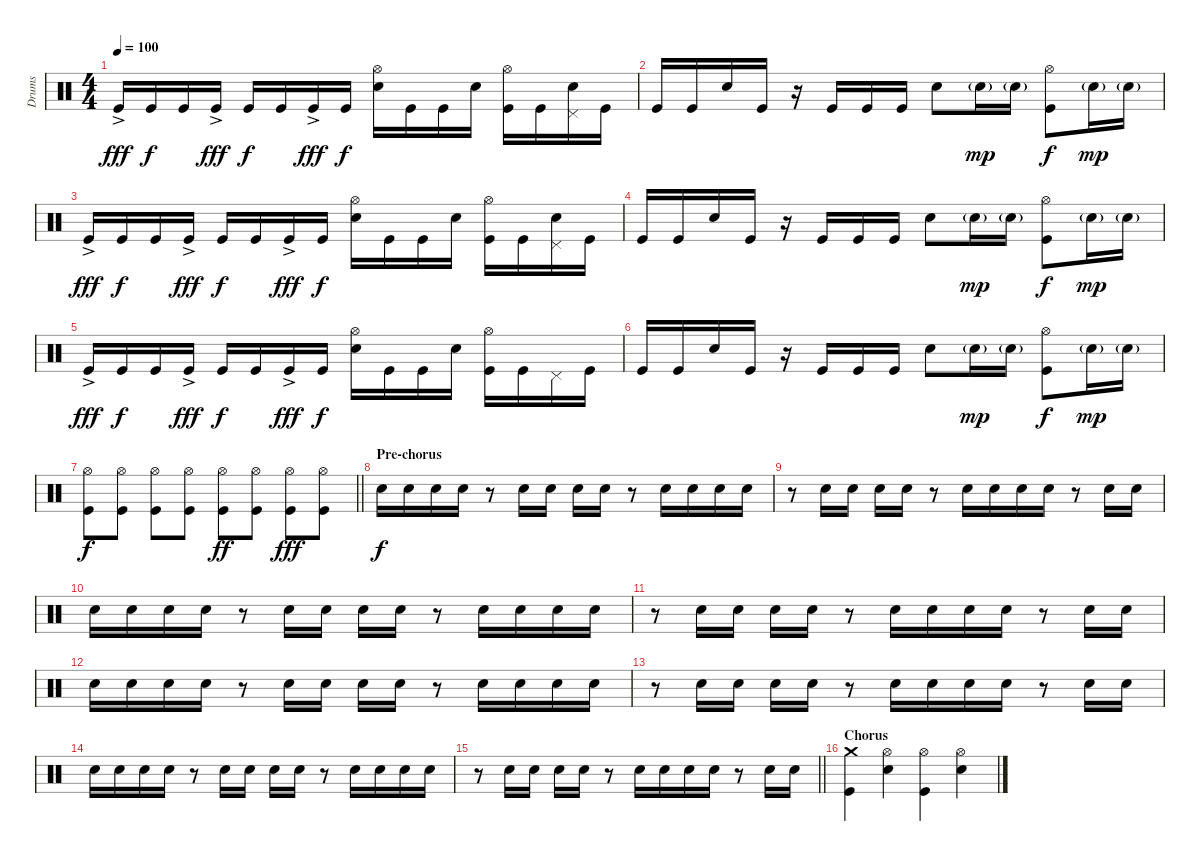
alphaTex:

\track ("Drums" "Drums") {instrument percussion}
\staff {score}
\articulation defaults
\ts (4 4)
\tempo 100
\clef neutral
\ks c "Kick (hit)"{ac}.16{dy fff} "Kick (hit)".16{dy f} "Kick (hit)".16 "Kick (hit)"{ac}.16{dy fff} "Kick (hit)".16{dy f} "Kick (hit)".16 "Kick (hit)"{ac}.16{dy fff} "Kick (hit)".16{dy f}
("Hi-Hat (open)" "Electric Snare (hit)").16 "Kick (hit)".16 "Kick (hit)".16 "Electric Snare (hit)".16 ("Hi-Hat (open)" "Kick (hit)").16 "Kick (hit)".16 ("Pedal Hi-Hat (hit)" "Electric Snare (hit)").16 "Kick (hit)".16 |
"Kick (hit)".16 "Kick (hit)".16 "Electric Snare (hit)".16 "Kick (hit)".16 r.16 "Kick (hit)".16 "Kick (hit)".16 "Kick (hit)".16 "Electric Snare (hit)".8 "Electric Snare (hit)"{g}.16{dy mp} "Electric Snare (hit)"{g}.16 ("Hi-Hat (open)" "Kick (hit)").8{dy f} "Electric Snare (hit)"{g}.16{dy mp} "Electric Snare (hit)"{g}.16 |
"Kick (hit)"{ac}.16{dy fff} "Kick (hit)".16{dy f} "Kick (hit)".16 "Kick (hit)"{ac}.16{dy fff} "Kick (hit)".16{dy f} "Kick (hit)".16 "Kick (hit)"{ac}.16{dy fff} "Kick (hit)".16{dy f} ("Hi-Hat (open)" "Electric Snare (hit)").16 "Kick (hit)".16 "Kick (hit)".16 "Electric Snare (hit)".16 ("Hi-Hat (open)" "Kick (hit)").16 "Kick (hit)".16 ("Pedal Hi-Hat (hit)" "Electric Snare (hit)").16 "Kick (hit)".16 |
"Kick (hit)".16 "Kick (hit)".16 "Electric Snare (hit)".16 "Kick (hit)".16 r.16 "Kick (hit)".16 "Kick (hit)".16 "Kick (hit)".16 "Electric Snare (hit)".8 "Electric Snare (hit)"{g}.16{dy mp} "Electric Snare (hit)"{g}.16 ("Hi-Hat (open)" "Kick (hit)").8{dy f} "Electric Snare (hit)"{g}.16{dy mp} "Electric Snare (hit)"{g}.16 |
"Kick (hit)"{ac}.16{dy fff} "Kick (hit)".16{dy f} "Kick (hit)".16 "Kick (hit)"{ac}.16{dy fff} "Kick (hit)".16{dy f} "Kick (hit)".16 "Kick (hit)"{ac}.16{dy fff} "Kick (hit)".16{dy f} ("Hi-Hat (open)" "Electric Snare (hit)").16 "Kick (hit)".16 "Kick (hit)".16 "Electric Snare (hit)".16 ("Hi-Hat (open)" "Kick (hit)").16 "Kick (hit)".16 "Pedal Hi-Hat (hit)".16 "Kick (hit)".16 |
"Kick (hit)".16 "Kick (hit)".16 "Electric Snare (hit)".16 "Kick (hit)".16 r.16 "Kick (hit)".16 "Kick (hit)".16 "Kick (hit)".16 "Electric Snare (hit)".8 "Electric Snare (hit)"{g}.16{dy mp} "Electric Snare (hit)"{g}.16 ("Hi-Hat (open)" "Kick (hit)").8{dy f} "Electric Snare (hit)"{g}.16{dy mp} "Electric Snare (hit)"{g}.16 |
\barLineRight lightlight
("Hi-Hat (open)" "Kick (hit)").8{dy f volume 11} ("Hi-Hat (open)" "Kick (hit)").8 ("Hi-Hat (open)" "Kick (hit)").8 ("Hi-Hat (open)" "Kick (hit)").8 ("Hi-Hat (open)" "Kick (hit)").8{dy ff} ("Hi-Hat (open)" "Kick (hit)").8 ("Hi-Hat (open)" "Kick (hit)").8{dy fff} ("Hi-Hat (open)" "Kick (hit)").8 |
\section ("" "Pre-chorus")
"Electric Snare (hit)".16{dy f} "Electric Snare (hit)".16 "Electric Snare (hit)".16 "Electric Snare (hit)".16 r.8 "Electric Snare (hit)".16 "Electric Snare (hit)".16 "Electric Snare (hit)".16 "Electric Snare (hit)".16 r.8 "Electric Snare (hit)".16 "Electric Snare (hit)".16 "Electric Snare (hit)".16 "Electric Snare (hit)".16 |
r.8 "Electric Snare (hit)".16 "Electric Snare (hit)".16 "Electric Snare (hit)".16 "Electric Snare (hit)".16 r.8 "Electric Snare (hit)".16 "Electric Snare (hit)".16 "Electric Snare (hit)".16 "Electric Snare (hit)".16 r.8 "Electric Snare (hit)".16 "Electric Snare (hit)".16 |
"Electric Snare (hit)".16 "Electric Snare (hit)".16 "Electric Snare (hit)".16 "Electric Snare (hit)".16 r.8 "Electric Snare (hit)".16 "Electric Snare (hit)".16 "Electric Snare (hit)".16 "Electric Snare (hit)".16 r.8 "Electric Snare (hit)".16 "Electric Snare (hit)".16 "Electric Snare (hit)".16 "Electric Snare (hit)".16 |
r.8 "Electric Snare (hit)".16 "Electric Snare (hit)".16 "Electric Snare (hit)".16 "Electric Snare (hit)".16 r.8 "Electric Snare (hit)".16 "Electric Snare (hit)".16 "Electric Snare (hit)".16 "Electric Snare (hit)".16 r.8 "Electric Snare (hit)".16 "Electric Snare (hit)".16 |
"Electric Snare (hit)".16 "Electric Snare (hit)".16 "Electric Snare (hit)".16 "Electric Snare (hit)".16 r.8 "Electric Snare (hit)".16 "Electric Snare (hit)".16 "Electric Snare (hit)".16 "Electric Snare (hit)".16 r.8 "Electric Snare (hit)".16 "Electric Snare (hit)".16 "Electric Snare (hit)".16 "Electric Snare (hit)".16 |
r.8 "Electric Snare (hit)".16 "Electric Snare (hit)".16 "Electric Snare (hit)".16 "Electric Snare (hit)".16 r.8 "Electric Snare (hit)".16 "Electric Snare (hit)".16 "Electric Snare (hit)".16 "Electric Snare (hit)".16 r.8 "Electric Snare (hit)".16 "Electric Snare (hit)".16 |
"Electric Snare (hit)".16 "Electric Snare (hit)".16 "Electric Snare (hit)".16 "Electric Snare (hit)".16 r.8 "Electric Snare (hit)".16 "Electric Snare (hit)".16 "Electric Snare (hit)".16 "Electric Snare (hit)".16 r.8 "Electric Snare (hit)".16 "Electric Snare (hit)".16 "Electric Snare (hit)".16 "Electric Snare (hit)".16 |
\barLineRight lightlight
r.8 "Electric Snare (hit)".16 "Electric Snare (hit)".16 "Electric Snare (hit)".16 "Electric Snare (hit)".16 r.8 "Electric Snare (hit)".16 "Electric Snare (hit)".16 "Electric Snare (hit)".16 "Electric Snare (hit)".16 r.8 "Electric Snare (hit)".16 "Electric Snare (hit)".16 |
\section ("" "Chorus")
("Crash medium (hit)" "Kick (hit)").4{volume 13} ("Hi-Hat (open)" "Electric Snare (hit)").4 ("Hi-Hat (open)" "Kick (hit)").4 ("Hi-Hat (open)" "Electric Snare (hit)").4
